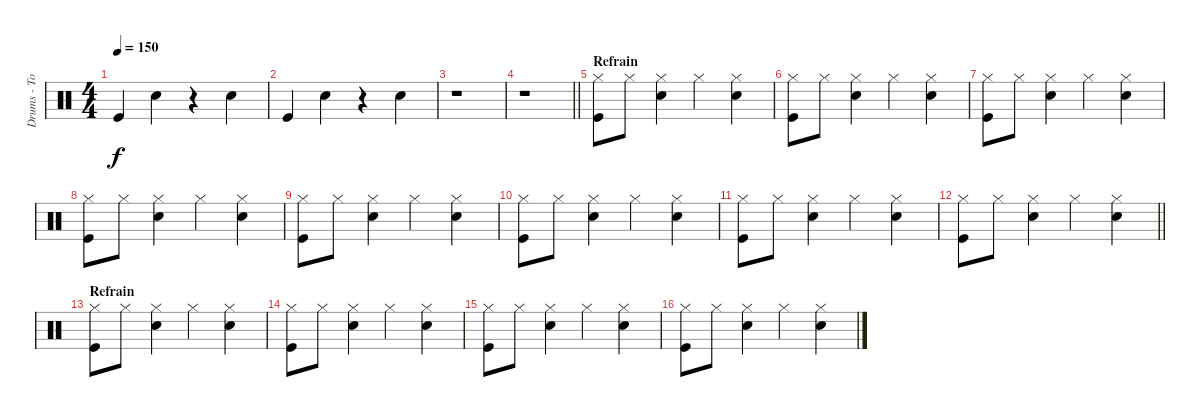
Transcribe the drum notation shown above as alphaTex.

\track ("Drums - Tobi Häuser" "Drums - To") {instrument percussion}
\staff {score}
\articulation defaults
\ts (4 4)
\tempo 150
\clef neutral
\ks c "Kick (hit)".4{dy f} "Snare (hit) 2".4
r.4 "Snare (hit) 2".4 |
"Kick (hit)".4 "Snare (hit) 2".4 r.4 "Snare (hit) 2".4 |
r.1 |
\barLineRight lightlight
r.1 |
\section ("" "Refrain")
("Hi-Hat (closed)" "Kick (hit)").8 "Hi-Hat (closed)".8 ("Hi-Hat (closed)" "Snare (hit) 2").4 "Hi-Hat (closed)".4 ("Hi-Hat (closed)" "Snare (hit) 2").4 |
("Hi-Hat (closed)" "Kick (hit)").8 "Hi-Hat (closed)".8 ("Hi-Hat (closed)" "Snare (hit) 2").4 "Hi-Hat (closed)".4 ("Hi-Hat (closed)" "Snare (hit) 2").4 |
("Hi-Hat (closed)" "Kick (hit)").8 "Hi-Hat (closed)".8 ("Hi-Hat (closed)" "Snare (hit) 2").4 "Hi-Hat (closed)".4 ("Hi-Hat (closed)" "Snare (hit) 2").4 |
("Hi-Hat (closed)" "Kick (hit)").8 "Hi-Hat (closed)".8 ("Hi-Hat (closed)" "Snare (hit) 2").4 "Hi-Hat (closed)".4 ("Hi-Hat (closed)" "Snare (hit) 2").4 |
("Hi-Hat (closed)" "Kick (hit)").8 "Hi-Hat (closed)".8 ("Hi-Hat (closed)" "Snare (hit) 2").4 "Hi-Hat (closed)".4 ("Hi-Hat (closed)" "Snare (hit) 2").4 |
("Hi-Hat (closed)" "Kick (hit)").8 "Hi-Hat (closed)".8 ("Hi-Hat (closed)" "Snare (hit) 2").4 "Hi-Hat (closed)".4 ("Hi-Hat (closed)" "Snare (hit) 2").4 |
("Hi-Hat (closed)" "Kick (hit)").8 "Hi-Hat (closed)".8 ("Hi-Hat (closed)" "Snare (hit) 2").4 "Hi-Hat (closed)".4 ("Hi-Hat (closed)" "Snare (hit) 2").4 |
\barLineRight lightlight
("Hi-Hat (closed)" "Kick (hit)").8 "Hi-Hat (closed)".8 ("Hi-Hat (closed)" "Snare (hit) 2").4 "Hi-Hat (closed)".4 ("Hi-Hat (closed)" "Snare (hit) 2").4 |
\section ("" "Refrain")
("Hi-Hat (closed)" "Kick (hit)").8 "Hi-Hat (closed)".8 ("Hi-Hat (closed)" "Snare (hit) 2").4 "Hi-Hat (closed)".4 ("Hi-Hat (closed)" "Snare (hit) 2").4 |
("Hi-Hat (closed)" "Kick (hit)").8 "Hi-Hat (closed)".8 ("Hi-Hat (closed)" "Snare (hit) 2").4 "Hi-Hat (closed)".4 ("Hi-Hat (closed)" "Snare (hit) 2").4 |
("Hi-Hat (closed)" "Kick (hit)").8 "Hi-Hat (closed)".8 ("Hi-Hat (closed)" "Snare (hit) 2").4 "Hi-Hat (closed)".4 ("Hi-Hat (closed)" "Snare (hit) 2").4 |
("Hi-Hat (closed)" "Kick (hit)").8 "Hi-Hat (closed)".8 ("Hi-Hat (closed)" "Snare (hit) 2").4 "Hi-Hat (closed)".4 ("Hi-Hat (closed)" "Snare (hit) 2").4
